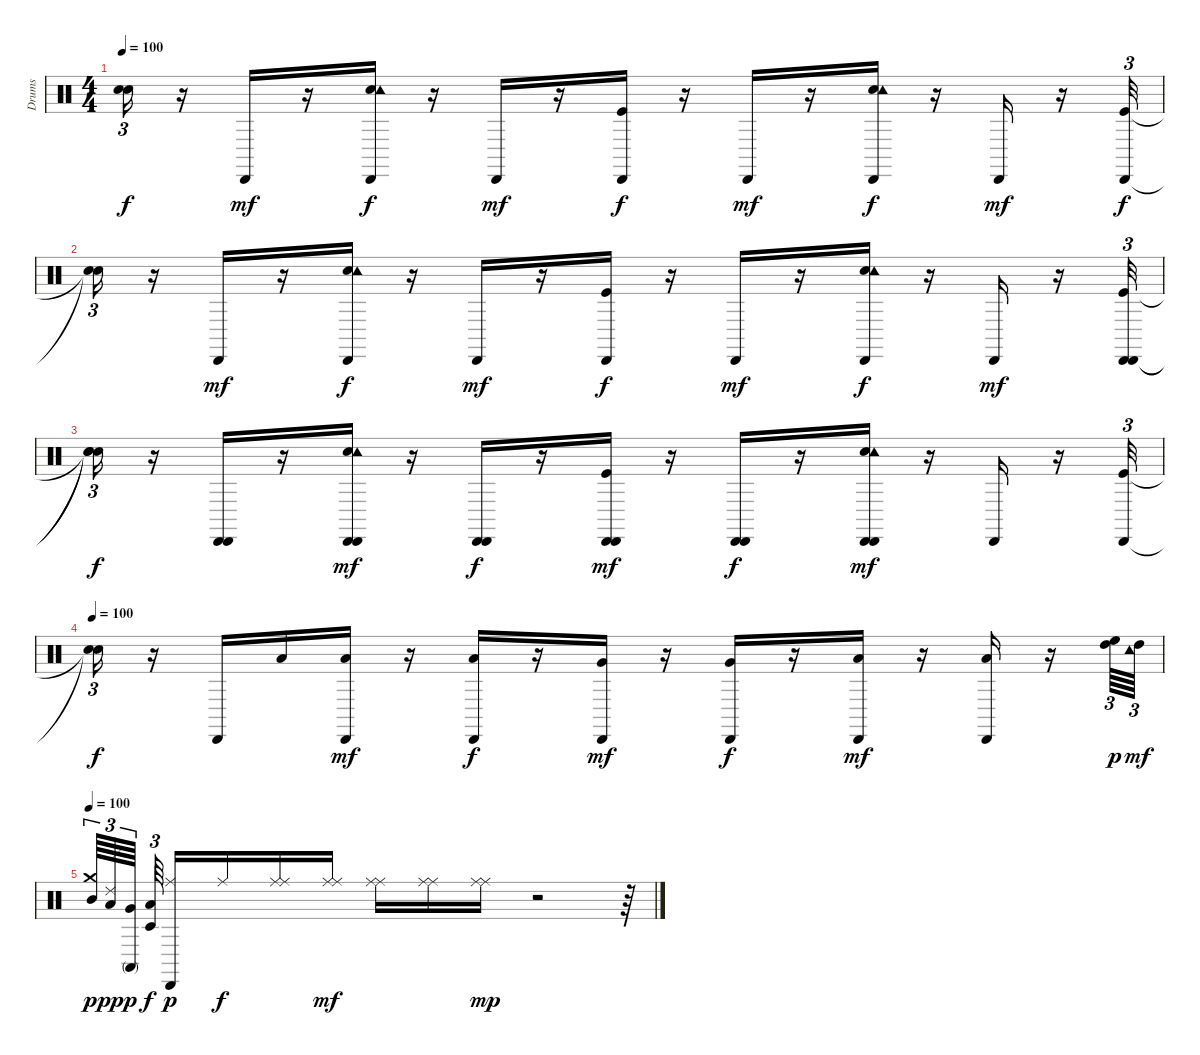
\track ("Drums" "Drums") {instrument percussion}
\staff {score}
\articulation defaults
\ts (4 4)
\tempo 100
\clef neutral
\ks c
("Snare (hit)"{t} "Snare (hit)"{t}).16{tu (3 2) dy f} r.16 "Cabasa (hit)".16{dy mf} r.16 ("Snare (hit) 2" "Tambourine (hit)" "Cabasa (hit)").16{dy f} r.16 "Cabasa (hit)".16{dy mf} r.16 ("Kick (hit)" "Cabasa (hit)").16{dy f} r.16 "Cabasa (hit)".16{dy mf} r.16 ("Snare (hit) 2" "Tambourine (hit)" "Cabasa (hit)").16{dy f} r.16 "Cabasa (hit)".16{dy mf} r.16 ("Kick (hit)" "Cabasa (hit)").32{tu (3 2) dy f} |
("Snare (hit)"{t} "Snare (hit)"{t}).16{tu (3 2)} r.16 "Cabasa (hit)".16{dy mf} r.16 ("Snare (hit) 2" "Tambourine (hit)" "Cabasa (hit)").16{dy f} r.16 "Cabasa (hit)".16{dy mf} r.16 ("Kick (hit)" "Cabasa (hit)").16{dy f} r.16 "Cabasa (hit)".16{dy mf} r.16 ("Snare (hit) 2" "Tambourine (hit)" "Cabasa (hit)").16{dy f} r.16 "Cabasa (hit)".16{dy mf} r.16 ("Kick (hit)" "Cabasa (hit)" "Cabasa (hit)").32{tu (3 2)} |
("Snare (hit)"{t} "Snare (hit)"{t} "Snare (hit)"{t}).16{tu (3 2) dy f} r.16 ("Cabasa (hit)" "Cabasa (hit)").16 r.16 ("Snare (hit) 2" "Tambourine (hit)" "Cabasa (hit)" "Cabasa (hit)").16{dy mf} r.16 ("Cabasa (hit)" "Cabasa (hit)").16{dy f} r.16 ("Kick (hit)" "Cabasa (hit)" "Cabasa (hit)").16{dy mf} r.16 ("Cabasa (hit)" "Cabasa (hit)").16{dy f} r.16 ("Snare (hit) 2" "Tambourine (hit)" "Cabasa (hit)" "Cabasa (hit)").16{dy mf} r.16 "Cabasa (hit)".16 r.16 ("Kick (hit)" "Cabasa (hit)").32{tu (3 2)} |
\tempo 100
("Snare (hit)"{t} "Snare (hit)"{t}).16{tu (3 2) dy f} r.16 "Cabasa (hit)".16 "Low Tom (hit)".16 ("Low Tom (hit)" "Cabasa (hit)").16{dy mf} r.16 ("Low Tom (hit)" "Cabasa (hit)").16{dy f} r.16 ("Very Low Tom (hit)" "Cabasa (hit)").16{dy mf} r.16 ("Very Low Tom (hit)" "Cabasa (hit)").16{dy f} r.16 ("Low Floor Tom (hit)" "Cabasa (hit)").16{dy mf} r.16 ("Low Floor Tom (hit)" "Cabasa (hit)").16 r.16 ("High Tom (hit)" "High Floor Tom (hit)").64{tu (3 2) dy p} ("High Tom (hit)" "Tambourine (hit)").64{tu (3 2) dy mf} |
\tempo 100
("Mid Tom (hit)" "Crash medium (hit)").64{tu (3 2) dy p} ("Low Tom (hit)" "Ride (edge) 2").64{tu (3 2) dy pp} ("Very Low Tom (hit)" "Conga high (mute)").64{tu (3 2) dy p} ("Low Floor Tom (hit)" "Timbale low (hit)").64{tu (3 2) dy f} ("Ride (middle)" "Cabasa (hit)").16{dy p} "Ride (middle)".16{dy f} ("Ride (middle)" "Ride (middle)").16 ("Ride (middle)" "Ride (middle)").16{dy mf} ("Ride (middle)" "Ride (middle)").16 ("Ride (middle)" "Ride (middle)").16 ("Ride (middle)" "Ride (middle)").16{dy mp} r.2 r.64
